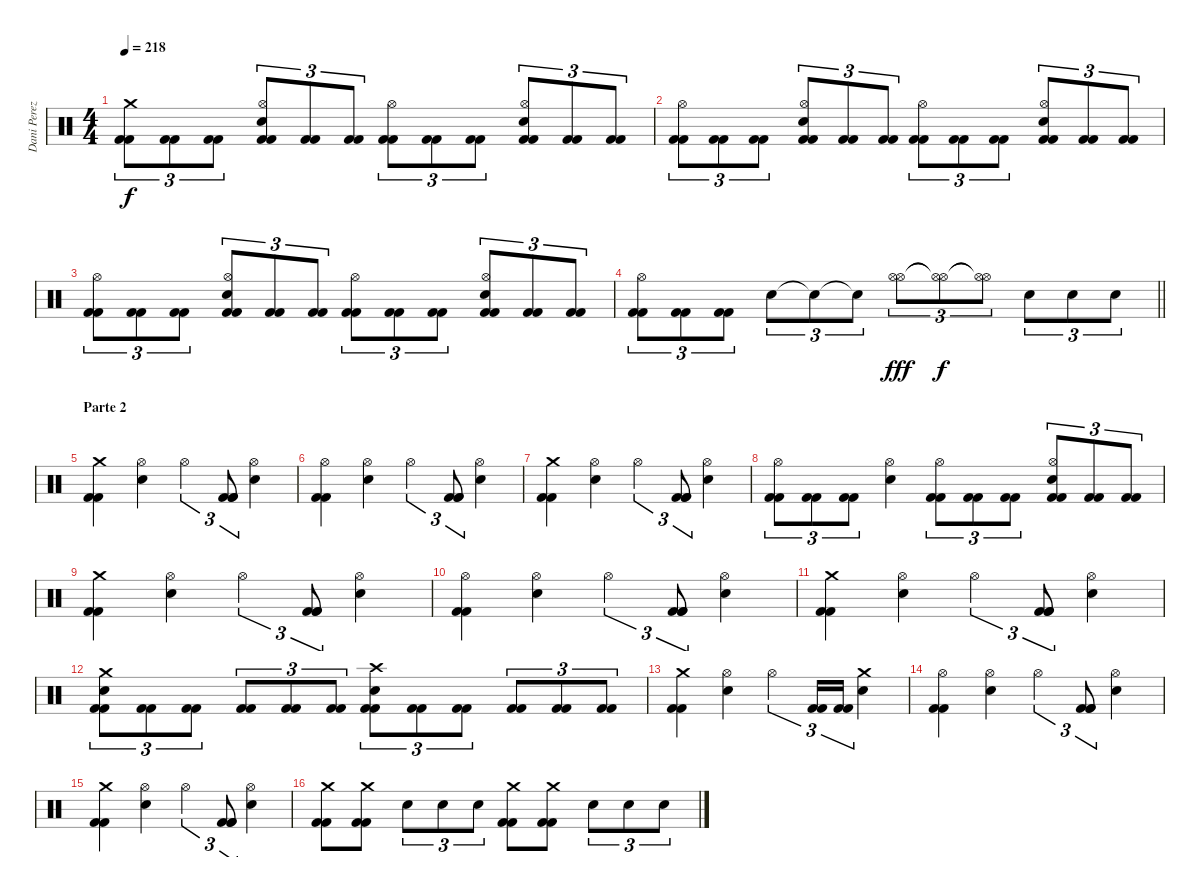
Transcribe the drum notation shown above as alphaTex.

\track ("Dani Perez" "Dani Perez") {instrument percussion}
\staff {score}
\articulation defaults
\ts (4 4)
\tempo 218
\clef neutral
\ks c
("Crash medium (hit)" "Kick (hit) 2" "Kick (hit) 2").8{tu (3 2) dy f} ("Kick (hit) 2" "Kick (hit) 2").8{tu (3 2)} ("Kick (hit) 2" "Kick (hit) 2").8{tu (3 2)} ("Hi-Hat (open)" "Snare (hit) 2" "Kick (hit) 2" "Kick (hit) 2").8{tu (3 2)} ("Kick (hit) 2" "Kick (hit) 2").8{tu (3 2)} ("Kick (hit) 2" "Kick (hit) 2").8{tu (3 2)} ("Hi-Hat (open)" "Kick (hit) 2" "Kick (hit) 2").8{tu (3 2)} ("Kick (hit) 2" "Kick (hit) 2").8{tu (3 2)} ("Kick (hit) 2" "Kick (hit) 2").8{tu (3 2)} ("Hi-Hat (open)" "Snare (hit) 2" "Kick (hit) 2" "Kick (hit) 2").8{tu (3 2)} ("Kick (hit) 2" "Kick (hit) 2").8{tu (3 2)} ("Kick (hit) 2" "Kick (hit) 2").8{tu (3 2)} |
("Hi-Hat (open)" "Kick (hit) 2" "Kick (hit) 2").8{tu (3 2)} ("Kick (hit) 2" "Kick (hit) 2").8{tu (3 2)} ("Kick (hit) 2" "Kick (hit) 2").8{tu (3 2)} ("Hi-Hat (open)" "Snare (hit) 2" "Kick (hit) 2" "Kick (hit) 2").8{tu (3 2)} ("Kick (hit) 2" "Kick (hit) 2").8{tu (3 2)} ("Kick (hit) 2" "Kick (hit) 2").8{tu (3 2)} ("Hi-Hat (open)" "Kick (hit) 2" "Kick (hit) 2").8{tu (3 2)} ("Kick (hit) 2" "Kick (hit) 2").8{tu (3 2)} ("Kick (hit) 2" "Kick (hit) 2").8{tu (3 2)} ("Hi-Hat (open)" "Snare (hit) 2" "Kick (hit) 2" "Kick (hit) 2").8{tu (3 2)} ("Kick (hit) 2" "Kick (hit) 2").8{tu (3 2)} ("Kick (hit) 2" "Kick (hit) 2").8{tu (3 2)} |
("Hi-Hat (open)" "Kick (hit) 2" "Kick (hit) 2").8{tu (3 2)} ("Kick (hit) 2" "Kick (hit) 2").8{tu (3 2)} ("Kick (hit) 2" "Kick (hit) 2").8{tu (3 2)} ("Hi-Hat (open)" "Snare (hit) 2" "Kick (hit) 2" "Kick (hit) 2").8{tu (3 2)} ("Kick (hit) 2" "Kick (hit) 2").8{tu (3 2)} ("Kick (hit) 2" "Kick (hit) 2").8{tu (3 2)} ("Hi-Hat (open)" "Kick (hit) 2" "Kick (hit) 2").8{tu (3 2)} ("Kick (hit) 2" "Kick (hit) 2").8{tu (3 2)} ("Kick (hit) 2" "Kick (hit) 2").8{tu (3 2)} ("Hi-Hat (open)" "Snare (hit) 2" "Kick (hit) 2" "Kick (hit) 2").8{tu (3 2)} ("Kick (hit) 2" "Kick (hit) 2").8{tu (3 2)} ("Kick (hit) 2" "Kick (hit) 2").8{tu (3 2)} |
\barLineRight lightlight
("Hi-Hat (open)" "Kick (hit) 2" "Kick (hit) 2").8{tu (3 2)} ("Kick (hit) 2" "Kick (hit) 2").8{tu (3 2)} ("Kick (hit) 2" "Kick (hit) 2").8{tu (3 2)} "Snare (hit) 2".8{tu (3 2)} "Snare (hit) 2"{t}.8{tu (3 2)} "Snare (hit) 2"{t}.8{tu (3 2)} ("Hi-Hat (open)" "Hi-Hat (open)").8{tu (3 2) dy fff} ("Hi-Hat (open)"{t} "Hi-Hat (open)"{t}).8{tu (3 2) dy f} ("Hi-Hat (open)"{t} "Hi-Hat (open)"{t}).8{tu (3 2)} "Snare (hit) 2".8{tu (3 2)} "Snare (hit) 2".8{tu (3 2)} "Snare (hit) 2".8{tu (3 2)} |
\section ("" "Parte 2")
("Crash medium (hit)" "Kick (hit) 2" "Kick (hit) 2").4 ("Hi-Hat (open)" "Snare (hit) 2").4 "Hi-Hat (open)".4{tu (3 2)} ("Kick (hit) 2" "Kick (hit) 2" "Kick (hit) 2").8{tu (3 2)} ("Hi-Hat (open)" "Snare (hit) 2").4 |
("Hi-Hat (open)" "Kick (hit) 2" "Kick (hit) 2").4 ("Hi-Hat (open)" "Snare (hit) 2").4 "Hi-Hat (open)".4{tu (3 2)} ("Kick (hit) 2" "Kick (hit) 2" "Kick (hit) 2").8{tu (3 2)} ("Hi-Hat (open)" "Snare (hit) 2").4 |
("Crash medium (hit)" "Kick (hit) 2" "Kick (hit) 2").4 ("Hi-Hat (open)" "Snare (hit) 2").4 "Hi-Hat (open)".4{tu (3 2)} ("Kick (hit) 2" "Kick (hit) 2" "Kick (hit) 2").8{tu (3 2)} ("Hi-Hat (open)" "Snare (hit) 2").4 |
("Hi-Hat (open)" "Kick (hit) 2" "Kick (hit) 2").8{tu (3 2)} ("Kick (hit) 2" "Kick (hit) 2").8{tu (3 2)} ("Kick (hit) 2" "Kick (hit) 2").8{tu (3 2)} ("Hi-Hat (open)" "Snare (hit) 2").4 ("Hi-Hat (open)" "Kick (hit) 2" "Kick (hit) 2").8{tu (3 2)} ("Kick (hit) 2" "Kick (hit) 2").8{tu (3 2)} ("Kick (hit) 2" "Kick (hit) 2").8{tu (3 2)} ("Hi-Hat (open)" "Snare (hit) 2" "Kick (hit) 2" "Kick (hit) 2").8{tu (3 2)} ("Kick (hit) 2" "Kick (hit) 2").8{tu (3 2)} ("Kick (hit) 2" "Kick (hit) 2").8{tu (3 2)} |
("Crash medium (hit)" "Kick (hit) 2" "Kick (hit) 2").4 ("Hi-Hat (open)" "Snare (hit) 2").4 "Hi-Hat (open)".4{tu (3 2)} ("Kick (hit) 2" "Kick (hit) 2" "Kick (hit) 2").8{tu (3 2)} ("Hi-Hat (open)" "Snare (hit) 2").4 |
("Hi-Hat (open)" "Kick (hit) 2" "Kick (hit) 2").4 ("Hi-Hat (open)" "Snare (hit) 2").4 "Hi-Hat (open)".4{tu (3 2)} ("Kick (hit) 2" "Kick (hit) 2" "Kick (hit) 2").8{tu (3 2)} ("Hi-Hat (open)" "Snare (hit) 2").4 |
("Crash medium (hit)" "Kick (hit) 2" "Kick (hit) 2").4 ("Hi-Hat (open)" "Snare (hit) 2").4 "Hi-Hat (open)".4{tu (3 2)} ("Kick (hit) 2" "Kick (hit) 2" "Kick (hit) 2").8{tu (3 2)} ("Hi-Hat (open)" "Snare (hit) 2").4 |
("Snare (hit) 2" "Crash medium (hit)" "Kick (hit) 2" "Kick (hit) 2").8{tu (3 2)} ("Kick (hit) 2" "Kick (hit) 2").8{tu (3 2)} ("Kick (hit) 2" "Kick (hit) 2").8{tu (3 2)} ("Kick (hit) 2" "Kick (hit) 2").8{tu (3 2)} ("Kick (hit) 2" "Kick (hit) 2").8{tu (3 2)} ("Kick (hit) 2" "Kick (hit) 2").8{tu (3 2)} ("Snare (hit) 2" "Crash high (hit)" "Kick (hit) 2" "Kick (hit) 2").8{tu (3 2)} ("Kick (hit) 2" "Kick (hit) 2").8{tu (3 2)} ("Kick (hit) 2" "Kick (hit) 2").8{tu (3 2)} ("Kick (hit) 2" "Kick (hit) 2").8{tu (3 2)} ("Kick (hit) 2" "Kick (hit) 2").8{tu (3 2)} ("Kick (hit) 2" "Kick (hit) 2").8{tu (3 2)} |
("Crash medium (hit)" "Kick (hit) 2" "Kick (hit) 2").4 ("Hi-Hat (open)" "Snare (hit) 2").4 "Hi-Hat (open)".4{tu (3 2)} ("Kick (hit) 2" "Kick (hit) 2").16{tu (3 2)} ("Kick (hit) 2" "Kick (hit) 2").16{tu (3 2)} ("Crash medium (hit)" "Snare (hit) 2").4 |
("Hi-Hat (open)" "Kick (hit) 2" "Kick (hit) 2").4 ("Hi-Hat (open)" "Snare (hit) 2").4 "Hi-Hat (open)".4{tu (3 2)} ("Kick (hit) 2" "Kick (hit) 2" "Kick (hit) 2").8{tu (3 2)} ("Hi-Hat (open)" "Snare (hit) 2").4 |
("Crash medium (hit)" "Kick (hit) 2" "Kick (hit) 2").4 ("Hi-Hat (open)" "Snare (hit) 2").4 "Hi-Hat (open)".4{tu (3 2)} ("Kick (hit) 2" "Kick (hit) 2" "Kick (hit) 2").8{tu (3 2)} ("Hi-Hat (open)" "Snare (hit) 2").4 |
("Kick (hit) 2" "Kick (hit) 2" "Crash medium (hit)").8 ("Kick (hit) 2" "Kick (hit) 2" "Crash medium (hit)").8 "Snare (hit) 2".8{tu (3 2)} "Snare (hit) 2".8{tu (3 2)} "Snare (hit) 2".8{tu (3 2)} ("Kick (hit) 2" "Kick (hit) 2" "Crash medium (hit)").8 ("Kick (hit) 2" "Kick (hit) 2" "Crash medium (hit)").8 "Snare (hit) 2".8{tu (3 2)} "Snare (hit) 2".8{tu (3 2)} "Snare (hit) 2".8{tu (3 2)}
